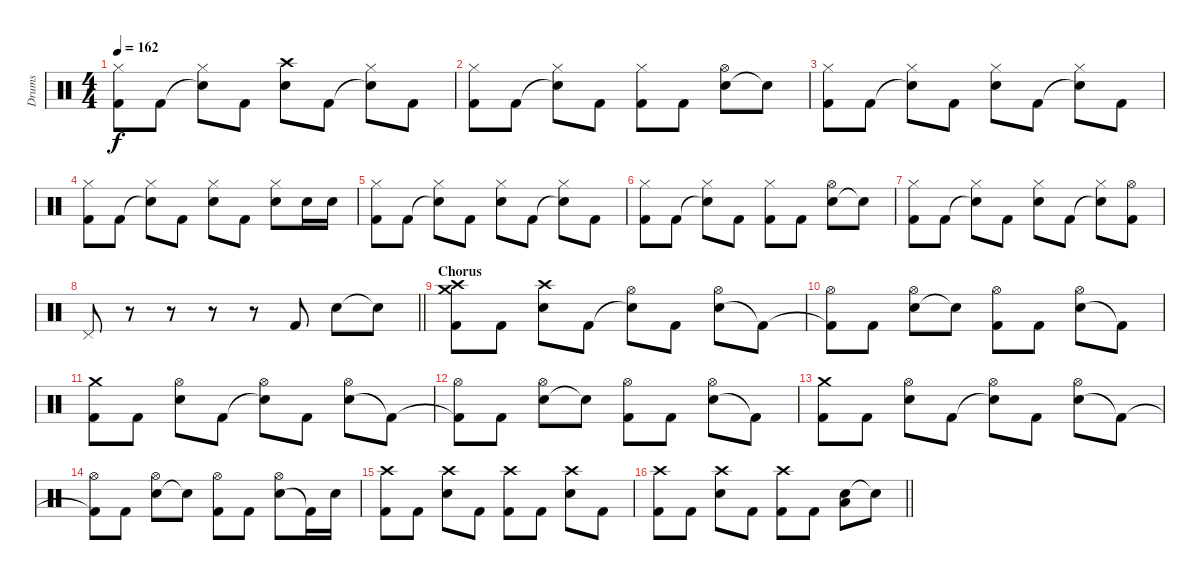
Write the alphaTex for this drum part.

\track ("Drums" "Drums") {instrument percussion}
\staff {score}
\articulation defaults
\ts (4 4)
\tempo 162
\clef neutral
\ks c
("Kick (hit) 2" "Hi-Hat (closed)").8{dy f} "Kick (hit) 2".8 ("Snare (hit)"{t} "Hi-Hat (closed)").8 "Kick (hit) 2".8 ("Electric Snare (hit)" "Crash high (hit)").8 "Kick (hit) 2".8 ("Snare (hit)"{t} "Hi-Hat (closed)").8 "Kick (hit) 2".8 |
("Kick (hit) 2" "Hi-Hat (closed)").8 "Kick (hit) 2".8 ("Snare (hit)"{t} "Hi-Hat (closed)").8 "Kick (hit) 2".8 ("Kick (hit) 2" "Hi-Hat (closed)").8 "Kick (hit) 2".8 ("Electric Snare (hit)" "Hi-Hat (open)").8 "Snare (hit)"{t}.8 |
("Kick (hit) 2" "Hi-Hat (closed)").8 "Kick (hit) 2".8 ("Snare (hit)"{t} "Hi-Hat (closed)").8 "Kick (hit) 2".8 ("Electric Snare (hit)" "Hi-Hat (closed)").8 "Kick (hit) 2".8 ("Snare (hit)"{t} "Hi-Hat (closed)").8 "Kick (hit) 2".8 |
("Kick (hit) 2" "Hi-Hat (closed)").8 "Kick (hit) 2".8 ("Snare (hit)"{t} "Hi-Hat (closed)").8 "Kick (hit) 2".8 ("Electric Snare (hit)" "Hi-Hat (closed)").8 "Kick (hit) 2".8 ("Electric Snare (hit)" "Hi-Hat (closed)").8 "Electric Snare (hit)".16 "Electric Snare (hit)".16 |
("Kick (hit) 2" "Hi-Hat (closed)").8 "Kick (hit) 2".8 ("Snare (hit)"{t} "Hi-Hat (closed)").8 "Kick (hit) 2".8 ("Electric Snare (hit)" "Hi-Hat (closed)").8 "Kick (hit) 2".8 ("Snare (hit)"{t} "Hi-Hat (closed)").8 "Kick (hit) 2".8 |
("Kick (hit) 2" "Hi-Hat (closed)").8 "Kick (hit) 2".8 ("Snare (hit)"{t} "Hi-Hat (closed)").8 "Kick (hit) 2".8 ("Kick (hit) 2" "Hi-Hat (closed)").8 "Kick (hit) 2".8 ("Electric Snare (hit)" "Hi-Hat (open)").8 "Snare (hit)"{t}.8 |
("Kick (hit) 2" "Hi-Hat (closed)").8 "Kick (hit) 2".8 ("Snare (hit)"{t} "Hi-Hat (closed)").8 "Kick (hit) 2".8 ("Electric Snare (hit)" "Hi-Hat (closed)").8 "Kick (hit) 2".8 ("Snare (hit)"{t} "Hi-Hat (closed)").8 ("Kick (hit) 2" "Hi-Hat (open)").8 |
\barLineRight lightlight "Pedal Hi-Hat (hit)".8
r.8 r.8 r.8 r.8 "Kick (hit) 2".8 "Electric Snare (hit)".8 "Electric Snare (hit)"{t}.8 |
\section ("" "Chorus")
("Kick (hit) 2" "Crash medium (hit)" "Crash high (hit)").8 "Kick (hit) 2".8 ("Electric Snare (hit)" "Crash high (hit)").8 "Kick (hit) 2".8 ("Snare (hit)"{t} "Hi-Hat (open)").8 "Kick (hit) 2".8 ("Electric Snare (hit)" "Hi-Hat (open)").8 "Kick (hit) 2"{t}.8 |
("Kick (hit) 2"{t} "Hi-Hat (open)").8 "Kick (hit) 2".8 ("Electric Snare (hit)" "Hi-Hat (open)").8 "Snare (hit)"{t}.8 ("Kick (hit) 2" "Hi-Hat (open)").8 "Kick (hit) 2".8 ("Electric Snare (hit)" "Hi-Hat (open)").8 "Kick (hit) 2"{t}.8 |
("Kick (hit) 2" "Crash medium (hit)").8 "Kick (hit) 2".8 ("Electric Snare (hit)" "Hi-Hat (open)").8 "Kick (hit) 2".8 ("Snare (hit)"{t} "Hi-Hat (open)").8 "Kick (hit) 2".8 ("Electric Snare (hit)" "Hi-Hat (open)").8 "Kick (hit) 2"{t}.8 |
("Kick (hit) 2"{t} "Hi-Hat (open)").8 "Kick (hit) 2".8 ("Electric Snare (hit)" "Hi-Hat (open)").8 "Snare (hit)"{t}.8 ("Kick (hit) 2" "Hi-Hat (open)").8 "Kick (hit) 2".8 ("Electric Snare (hit)" "Hi-Hat (open)").8 "Kick (hit) 2"{t}.8 |
("Kick (hit) 2" "Crash medium (hit)").8 "Kick (hit) 2".8 ("Electric Snare (hit)" "Hi-Hat (open)").8 "Kick (hit) 2".8 ("Snare (hit)"{t} "Hi-Hat (open)").8 "Kick (hit) 2".8 ("Electric Snare (hit)" "Hi-Hat (open)").8 "Kick (hit) 2"{t}.8 |
("Kick (hit) 2"{t} "Hi-Hat (open)").8 "Kick (hit) 2".8 ("Electric Snare (hit)" "Hi-Hat (open)").8 "Snare (hit)"{t}.8 ("Kick (hit) 2" "Hi-Hat (open)").8 "Kick (hit) 2".8 ("Electric Snare (hit)" "Hi-Hat (open)").8 "Kick (hit) 2"{t}.16 "Electric Snare (hit)".16 |
("Kick (hit) 2" "Crash high (hit)").8 "Kick (hit) 2".8 ("Electric Snare (hit)" "Crash high (hit)").8 "Kick (hit) 2".8 ("Kick (hit) 2" "Crash high (hit)").8 "Kick (hit) 2".8 ("Electric Snare (hit)" "Crash high (hit)").8 "Kick (hit) 2".8 |
\barLineRight lightlight
("Kick (hit) 2" "Crash high (hit)").8 "Kick (hit) 2".8 ("Electric Snare (hit)" "Crash high (hit)").8 "Kick (hit) 2".8 ("Kick (hit) 2" "Crash high (hit)").8 "Kick (hit) 2".8 ("Electric Snare (hit)" "Low Floor Tom (hit)").8 "Snare (hit)"{t}.8
